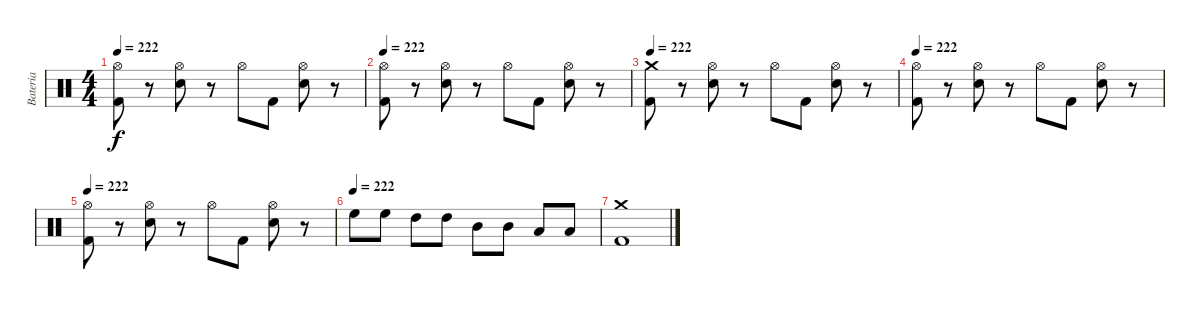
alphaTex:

\track ("Bateria" "Bateria") {instrument percussion}
\staff {score}
\articulation defaults
\ts (4 4)
\tempo 222
\clef neutral
\ks c
("Hi-Hat (open)" "Kick (hit) 2").8{dy f} r.8 ("Hi-Hat (open)" "Electric Snare (hit)").8 r.8 "Hi-Hat (open)".8 "Kick (hit) 2".8 ("Hi-Hat (open)" "Electric Snare (hit)").8 r.8 |
\tempo 222
("Hi-Hat (open)" "Kick (hit) 2").8 r.8 ("Hi-Hat (open)" "Electric Snare (hit)").8 r.8 "Hi-Hat (open)".8 "Kick (hit) 2".8 ("Hi-Hat (open)" "Electric Snare (hit)").8 r.8 |
\tempo 222
("Crash medium (hit)" "Kick (hit) 2").8 r.8 ("Hi-Hat (open)" "Electric Snare (hit)").8 r.8 "Hi-Hat (open)".8 "Kick (hit) 2".8 ("Hi-Hat (open)" "Electric Snare (hit)").8 r.8 |
\tempo 222
("Hi-Hat (open)" "Kick (hit) 2").8 r.8 ("Hi-Hat (open)" "Electric Snare (hit)").8 r.8 "Hi-Hat (open)".8 "Kick (hit) 2".8 ("Hi-Hat (open)" "Electric Snare (hit)").8 r.8 |
\tempo 222
("Hi-Hat (open)" "Kick (hit) 2").8 r.8 ("Hi-Hat (open)" "Electric Snare (hit)").8 r.8 "Hi-Hat (open)".8 "Kick (hit) 2".8 ("Hi-Hat (open)" "Electric Snare (hit)").8 r.8 |
\tempo (222)
"High Floor Tom (hit)".8 "High Floor Tom (hit)".8 "High Tom (hit)".8 "High Tom (hit)".8 "Mid Tom (hit)".8 "Mid Tom (hit)".8 "Low Tom (hit)".8 "Low Tom (hit)".8 |
("Kick (hit) 2" "Crash medium (hit)").1
